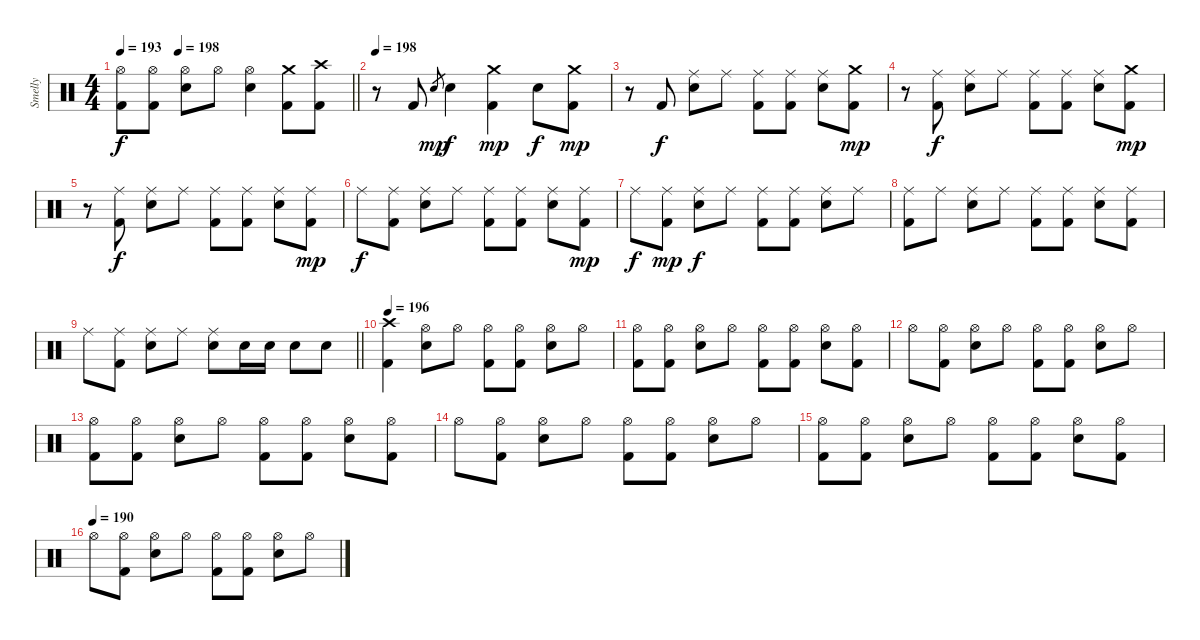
\track ("Smelly" "Smelly") {instrument percussion}
\staff {score}
\articulation defaults
\ts (4 4)
\tempo 193
\tempo (198 0.25)
\clef neutral
\barLineRight lightlight
\ks c
("Hi-Hat (open)" "Kick (hit) 2").8{dy f} ("Hi-Hat (open)" "Kick (hit) 2").8 ("Hi-Hat (open)" "Electric Snare (hit)").8 "Hi-Hat (open)".8 ("Hi-Hat (open)" "Electric Snare (hit)").4 ("Crash medium (hit)" "Kick (hit) 2").8 ("Crash high (hit)" "Kick (hit) 2").8 |
\section ("" "")
\tempo 198
r.8 "Kick (hit) 2".8 "Electric Snare (hit)".8{gr dy mp} "Electric Snare (hit)".4{dy f} ("Crash medium (hit)" "Kick (hit) 2").4{dy mp} "Electric Snare (hit)".8{dy f} ("Crash medium (hit)" "Kick (hit) 2").8{dy mp} |
r.8 "Kick (hit) 2".8{dy f} ("Ride (middle)" "Electric Snare (hit)").8 "Ride (middle)".8 ("Ride (middle)" "Kick (hit) 2").8 ("Ride (middle)" "Kick (hit) 2").8 ("Ride (middle)" "Electric Snare (hit)").8 ("Crash medium (hit)" "Kick (hit) 2").8{dy mp} |
r.8 ("Ride (middle)" "Kick (hit) 2").8{dy f} ("Ride (middle)" "Electric Snare (hit)").8 "Ride (middle)".8 ("Ride (middle)" "Kick (hit) 2").8 ("Ride (middle)" "Kick (hit) 2").8 ("Ride (middle)" "Electric Snare (hit)").8 ("Crash medium (hit)" "Kick (hit) 2").8{dy mp} |
r.8 ("Ride (middle)" "Kick (hit) 2").8{dy f} ("Ride (middle)" "Electric Snare (hit)").8 "Ride (middle)".8 ("Ride (middle)" "Kick (hit) 2").8 ("Ride (middle)" "Kick (hit) 2").8 ("Ride (middle)" "Electric Snare (hit)").8 ("Ride (middle)" "Kick (hit) 2").8{dy mp} |
"Ride (middle)".8{dy f} ("Ride (middle)" "Kick (hit) 2").8 ("Ride (middle)" "Electric Snare (hit)").8 "Ride (middle)".8 ("Ride (middle)" "Kick (hit) 2").8 ("Ride (middle)" "Kick (hit) 2").8 ("Ride (middle)" "Electric Snare (hit)").8 ("Ride (middle)" "Kick (hit) 2").8{dy mp} |
"Ride (middle)".8{dy f} ("Ride (middle)" "Kick (hit) 2").8{dy mp} ("Ride (middle)" "Electric Snare (hit)").8{dy f} "Ride (middle)".8 ("Ride (middle)" "Kick (hit) 2").8 ("Ride (middle)" "Kick (hit) 2").8 ("Ride (middle)" "Electric Snare (hit)").8 "Ride (middle)".8 |
("Ride (middle)" "Kick (hit) 2").8 "Ride (middle)".8 ("Ride (middle)" "Electric Snare (hit)").8 "Ride (middle)".8 ("Ride (middle)" "Kick (hit) 2").8 ("Ride (middle)" "Kick (hit) 2").8 ("Ride (middle)" "Electric Snare (hit)").8 ("Ride (middle)" "Kick (hit) 2").8 |
\barLineRight lightlight "Ride (middle)".8
("Ride (middle)" "Kick (hit) 2").8 ("Ride (middle)" "Electric Snare (hit)").8 "Ride (middle)".8 ("Ride (middle)" "Electric Snare (hit)").8 "Electric Snare (hit)".16 "Electric Snare (hit)".16 "Electric Snare (hit)".8 "Electric Snare (hit)".8 |
\tempo 196
("Crash high (hit)" "Kick (hit) 2").4 ("Hi-Hat (open)" "Electric Snare (hit)").8 "Hi-Hat (open)".8 ("Hi-Hat (open)" "Kick (hit) 2").8 ("Hi-Hat (open)" "Kick (hit) 2").8 ("Hi-Hat (open)" "Electric Snare (hit)").8 "Hi-Hat (open)".8 |
("Hi-Hat (open)" "Kick (hit) 2").8 ("Hi-Hat (open)" "Kick (hit) 2").8 ("Hi-Hat (open)" "Electric Snare (hit)").8 "Hi-Hat (open)".8 ("Hi-Hat (open)" "Kick (hit) 2").8 ("Hi-Hat (open)" "Kick (hit) 2").8 ("Hi-Hat (open)" "Electric Snare (hit)").8 ("Hi-Hat (open)" "Kick (hit) 2").8 |
"Hi-Hat (open)".8 ("Hi-Hat (open)" "Kick (hit) 2").8 ("Hi-Hat (open)" "Electric Snare (hit)").8 "Hi-Hat (open)".8 ("Hi-Hat (open)" "Kick (hit) 2").8 ("Hi-Hat (open)" "Kick (hit) 2").8 ("Hi-Hat (open)" "Electric Snare (hit)").8 "Hi-Hat (open)".8 |
("Hi-Hat (open)" "Kick (hit) 2").8 ("Hi-Hat (open)" "Kick (hit) 2").8 ("Hi-Hat (open)" "Electric Snare (hit)").8 "Hi-Hat (open)".8 ("Hi-Hat (open)" "Kick (hit) 2").8 ("Hi-Hat (open)" "Kick (hit) 2").8 ("Hi-Hat (open)" "Electric Snare (hit)").8 ("Hi-Hat (open)" "Kick (hit) 2").8 |
"Hi-Hat (open)".8 ("Hi-Hat (open)" "Kick (hit) 2").8 ("Hi-Hat (open)" "Electric Snare (hit)").8 "Hi-Hat (open)".8 ("Hi-Hat (open)" "Kick (hit) 2").8 ("Hi-Hat (open)" "Kick (hit) 2").8 ("Hi-Hat (open)" "Electric Snare (hit)").8 "Hi-Hat (open)".8 |
("Hi-Hat (open)" "Kick (hit) 2").8 ("Hi-Hat (open)" "Kick (hit) 2").8 ("Hi-Hat (open)" "Electric Snare (hit)").8 "Hi-Hat (open)".8 ("Hi-Hat (open)" "Kick (hit) 2").8 ("Hi-Hat (open)" "Kick (hit) 2").8 ("Hi-Hat (open)" "Electric Snare (hit)").8 ("Hi-Hat (open)" "Kick (hit) 2").8 |
\tempo (190)
"Hi-Hat (open)".8 ("Hi-Hat (open)" "Kick (hit) 2").8 ("Hi-Hat (open)" "Electric Snare (hit)").8 "Hi-Hat (open)".8 ("Hi-Hat (open)" "Kick (hit) 2").8 ("Hi-Hat (open)" "Kick (hit) 2").8 ("Hi-Hat (open)" "Electric Snare (hit)").8 "Hi-Hat (open)".8
